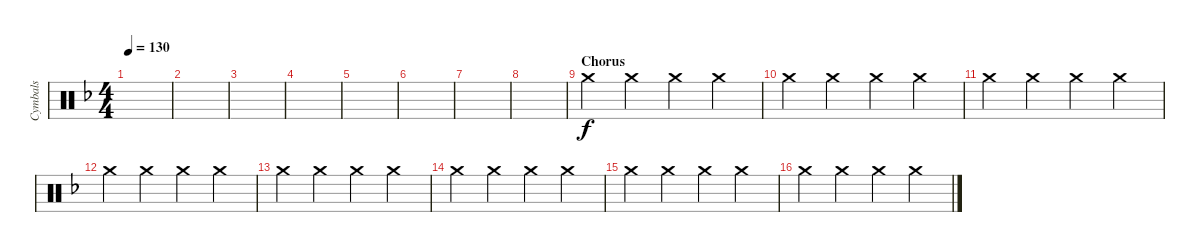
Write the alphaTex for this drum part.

\track ("Cymbals" "Cymbals") {instrument percussion}
\staff {score}
\articulation defaults
\ts (4 4)
\tempo 130
\clef neutral
\ks f
|
|
|
|
|
|
|
|
\section ("" "Chorus")
"Crash medium (hit)".4 "Crash medium (hit)".4 "Crash medium (hit)".4 "Crash medium (hit)".4 |
"Crash medium (hit)".4 "Crash medium (hit)".4 "Crash medium (hit)".4 "Crash medium (hit)".4 |
"Crash medium (hit)".4 "Crash medium (hit)".4 "Crash medium (hit)".4 "Crash medium (hit)".4 |
"Crash medium (hit)".4 "Crash medium (hit)".4 "Crash medium (hit)".4 "Crash medium (hit)".4 |
"Crash medium (hit)".4 "Crash medium (hit)".4 "Crash medium (hit)".4 "Crash medium (hit)".4 |
"Crash medium (hit)".4 "Crash medium (hit)".4 "Crash medium (hit)".4 "Crash medium (hit)".4 |
"Crash medium (hit)".4 "Crash medium (hit)".4 "Crash medium (hit)".4 "Crash medium (hit)".4 |
"Crash medium (hit)".4 "Crash medium (hit)".4 "Crash medium (hit)".4 "Crash medium (hit)".4
